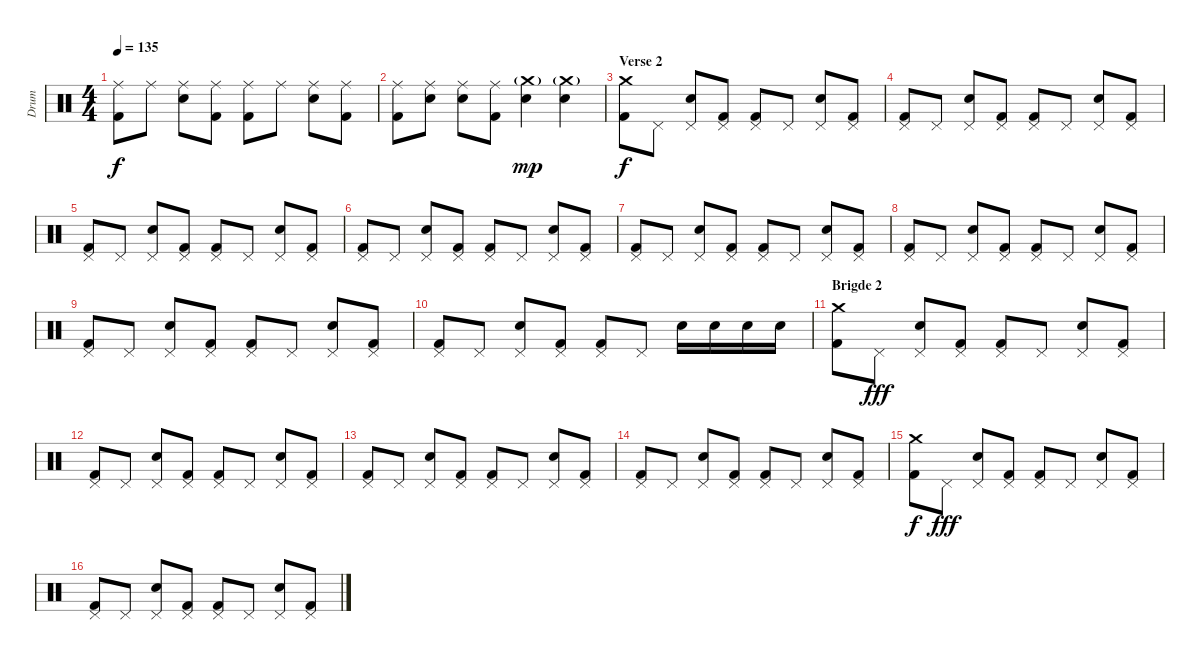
\track ("Drum" "Drum") {instrument percussion}
\staff {score}
\articulation defaults
\ts (4 4)
\tempo 135
\clef neutral
\ks c
("Ride (middle)" "Kick (hit) 2").8{dy f} "Ride (middle)".8 ("Ride (middle)" "Snare (hit) 2").8 ("Ride (middle)" "Kick (hit) 2").8 ("Ride (middle)" "Kick (hit) 2").8 "Ride (middle)".8 ("Ride (middle)" "Snare (hit) 2").8 ("Ride (middle)" "Kick (hit) 2").8 |
("Ride (middle)" "Kick (hit) 2").8 ("Ride (middle)" "Snare (hit) 2").8 ("Ride (middle)" "Snare (hit) 2").8 ("Ride (middle)" "Kick (hit) 2").8 ("Crash medium (hit)"{g} "Snare (hit) 2").4{dy mp} ("Crash medium (hit)"{g} "Snare (hit) 2").4 |
\section ("" "Verse 2")
("Crash medium (hit)" "Kick (hit) 2").8{dy f} "Pedal Hi-Hat (hit)".8 ("Pedal Hi-Hat (hit)" "Snare (hit) 2").8 ("Pedal Hi-Hat (hit)" "Kick (hit) 2").8 ("Pedal Hi-Hat (hit)" "Kick (hit) 2").8 "Pedal Hi-Hat (hit)".8 ("Pedal Hi-Hat (hit)" "Snare (hit) 2").8 ("Pedal Hi-Hat (hit)" "Kick (hit) 2").8 |
("Pedal Hi-Hat (hit)" "Kick (hit) 2").8 "Pedal Hi-Hat (hit)".8 ("Pedal Hi-Hat (hit)" "Snare (hit) 2").8 ("Pedal Hi-Hat (hit)" "Kick (hit) 2").8 ("Pedal Hi-Hat (hit)" "Kick (hit) 2").8 "Pedal Hi-Hat (hit)".8 ("Pedal Hi-Hat (hit)" "Snare (hit) 2").8 ("Pedal Hi-Hat (hit)" "Kick (hit) 2").8 |
("Pedal Hi-Hat (hit)" "Kick (hit) 2").8 "Pedal Hi-Hat (hit)".8 ("Pedal Hi-Hat (hit)" "Snare (hit) 2").8 ("Pedal Hi-Hat (hit)" "Kick (hit) 2").8 ("Pedal Hi-Hat (hit)" "Kick (hit) 2").8 "Pedal Hi-Hat (hit)".8 ("Pedal Hi-Hat (hit)" "Snare (hit) 2").8 ("Pedal Hi-Hat (hit)" "Kick (hit) 2").8 |
("Pedal Hi-Hat (hit)" "Kick (hit) 2").8 "Pedal Hi-Hat (hit)".8 ("Pedal Hi-Hat (hit)" "Snare (hit) 2").8 ("Pedal Hi-Hat (hit)" "Kick (hit) 2").8 ("Pedal Hi-Hat (hit)" "Kick (hit) 2").8 "Pedal Hi-Hat (hit)".8 ("Pedal Hi-Hat (hit)" "Snare (hit) 2").8 ("Pedal Hi-Hat (hit)" "Kick (hit) 2").8 |
("Pedal Hi-Hat (hit)" "Kick (hit) 2").8 "Pedal Hi-Hat (hit)".8 ("Pedal Hi-Hat (hit)" "Snare (hit) 2").8 ("Pedal Hi-Hat (hit)" "Kick (hit) 2").8 ("Pedal Hi-Hat (hit)" "Kick (hit) 2").8 "Pedal Hi-Hat (hit)".8 ("Pedal Hi-Hat (hit)" "Snare (hit) 2").8 ("Pedal Hi-Hat (hit)" "Kick (hit) 2").8 |
("Pedal Hi-Hat (hit)" "Kick (hit) 2").8 "Pedal Hi-Hat (hit)".8 ("Pedal Hi-Hat (hit)" "Snare (hit) 2").8 ("Pedal Hi-Hat (hit)" "Kick (hit) 2").8 ("Pedal Hi-Hat (hit)" "Kick (hit) 2").8 "Pedal Hi-Hat (hit)".8 ("Pedal Hi-Hat (hit)" "Snare (hit) 2").8 ("Pedal Hi-Hat (hit)" "Kick (hit) 2").8 |
("Pedal Hi-Hat (hit)" "Kick (hit) 2").8 "Pedal Hi-Hat (hit)".8 ("Pedal Hi-Hat (hit)" "Snare (hit) 2").8 ("Pedal Hi-Hat (hit)" "Kick (hit) 2").8 ("Pedal Hi-Hat (hit)" "Kick (hit) 2").8 "Pedal Hi-Hat (hit)".8 ("Pedal Hi-Hat (hit)" "Snare (hit) 2").8 ("Pedal Hi-Hat (hit)" "Kick (hit) 2").8 |
("Pedal Hi-Hat (hit)" "Kick (hit) 2").8 "Pedal Hi-Hat (hit)".8 ("Pedal Hi-Hat (hit)" "Snare (hit) 2").8 ("Pedal Hi-Hat (hit)" "Kick (hit) 2").8 ("Pedal Hi-Hat (hit)" "Kick (hit) 2").8 "Pedal Hi-Hat (hit)".8 "Snare (hit) 2".16 "Snare (hit) 2".16 "Snare (hit) 2".16 "Snare (hit) 2".16 |
\section ("" "Brigde 2")
("Crash medium (hit)" "Kick (hit) 2").8 "Pedal Hi-Hat (hit)".8{dy fff} ("Pedal Hi-Hat (hit)" "Snare (hit) 2").8 ("Pedal Hi-Hat (hit)" "Kick (hit) 2").8 ("Pedal Hi-Hat (hit)" "Kick (hit) 2").8 "Pedal Hi-Hat (hit)".8 ("Pedal Hi-Hat (hit)" "Snare (hit) 2").8 ("Pedal Hi-Hat (hit)" "Kick (hit) 2").8 |
("Pedal Hi-Hat (hit)" "Kick (hit) 2").8 "Pedal Hi-Hat (hit)".8 ("Pedal Hi-Hat (hit)" "Snare (hit) 2").8 ("Pedal Hi-Hat (hit)" "Kick (hit) 2").8 ("Pedal Hi-Hat (hit)" "Kick (hit) 2").8 "Pedal Hi-Hat (hit)".8 ("Pedal Hi-Hat (hit)" "Snare (hit) 2").8 ("Pedal Hi-Hat (hit)" "Kick (hit) 2").8 |
("Pedal Hi-Hat (hit)" "Kick (hit) 2").8 "Pedal Hi-Hat (hit)".8 ("Pedal Hi-Hat (hit)" "Snare (hit) 2").8 ("Pedal Hi-Hat (hit)" "Kick (hit) 2").8 ("Pedal Hi-Hat (hit)" "Kick (hit) 2").8 "Pedal Hi-Hat (hit)".8 ("Pedal Hi-Hat (hit)" "Snare (hit) 2").8 ("Pedal Hi-Hat (hit)" "Kick (hit) 2").8 |
("Pedal Hi-Hat (hit)" "Kick (hit) 2").8 "Pedal Hi-Hat (hit)".8 ("Pedal Hi-Hat (hit)" "Snare (hit) 2").8 ("Pedal Hi-Hat (hit)" "Kick (hit) 2").8 ("Pedal Hi-Hat (hit)" "Kick (hit) 2").8 "Pedal Hi-Hat (hit)".8 ("Pedal Hi-Hat (hit)" "Snare (hit) 2").8 ("Pedal Hi-Hat (hit)" "Kick (hit) 2").8 |
("Crash medium (hit)" "Kick (hit) 2").8{dy f} "Pedal Hi-Hat (hit)".8{dy fff} ("Pedal Hi-Hat (hit)" "Snare (hit) 2").8 ("Pedal Hi-Hat (hit)" "Kick (hit) 2").8 ("Pedal Hi-Hat (hit)" "Kick (hit) 2").8 "Pedal Hi-Hat (hit)".8 ("Pedal Hi-Hat (hit)" "Snare (hit) 2").8 ("Pedal Hi-Hat (hit)" "Kick (hit) 2").8 |
("Pedal Hi-Hat (hit)" "Kick (hit) 2").8 "Pedal Hi-Hat (hit)".8 ("Pedal Hi-Hat (hit)" "Snare (hit) 2").8 ("Pedal Hi-Hat (hit)" "Kick (hit) 2").8 ("Pedal Hi-Hat (hit)" "Kick (hit) 2").8 "Pedal Hi-Hat (hit)".8 ("Pedal Hi-Hat (hit)" "Snare (hit) 2").8 ("Pedal Hi-Hat (hit)" "Kick (hit) 2").8
